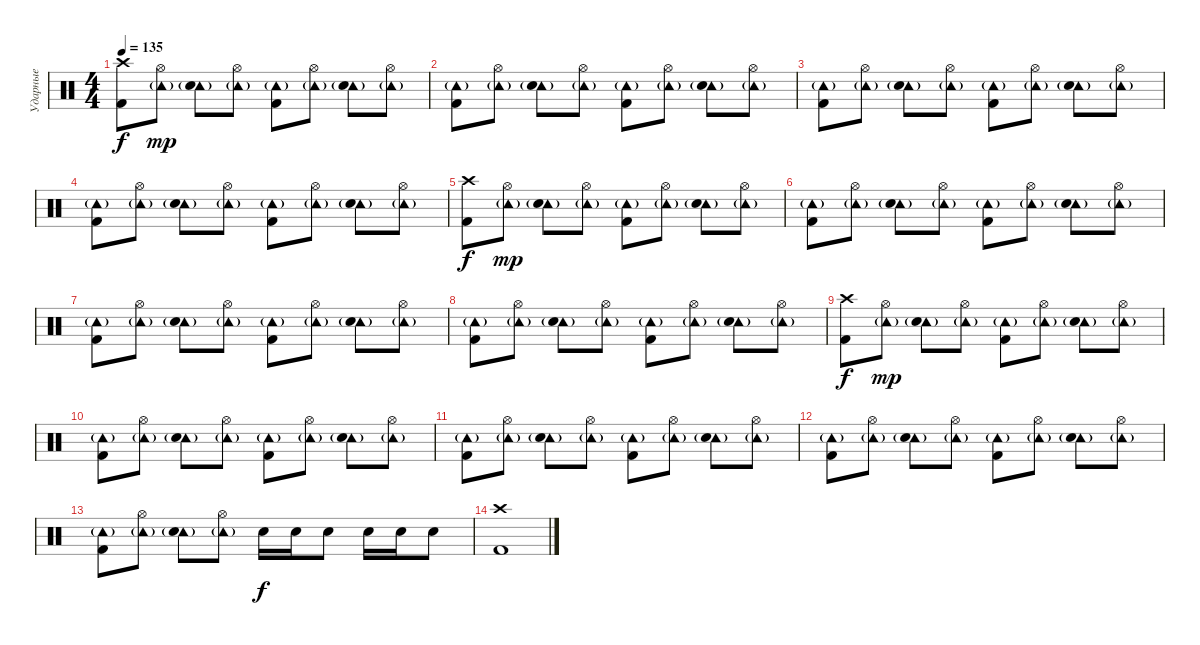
\track ("Ударные" "Ударные") {instrument percussion}
\staff {score}
\articulation defaults
\ts (4 4)
\tempo 135
\clef neutral
\ks c
("Crash high (hit)" "Kick (hit) 2").8{dy f} ("Tambourine (hit)"{g} "Hi-Hat (open)").8{dy mp} ("Tambourine (hit)"{g} "Electric Snare (hit)").8 ("Tambourine (hit)"{g} "Hi-Hat (open)").8 ("Tambourine (hit)"{g} "Kick (hit) 2").8 ("Tambourine (hit)"{g} "Hi-Hat (open)").8 ("Tambourine (hit)"{g} "Electric Snare (hit)").8 ("Tambourine (hit)"{g} "Hi-Hat (open)").8 |
("Tambourine (hit)"{g} "Kick (hit) 2").8 ("Tambourine (hit)"{g} "Hi-Hat (open)").8 ("Tambourine (hit)"{g} "Electric Snare (hit)").8 ("Tambourine (hit)"{g} "Hi-Hat (open)").8 ("Tambourine (hit)"{g} "Kick (hit) 2").8 ("Tambourine (hit)"{g} "Hi-Hat (open)").8 ("Tambourine (hit)"{g} "Electric Snare (hit)").8 ("Tambourine (hit)"{g} "Hi-Hat (open)").8 |
("Tambourine (hit)"{g} "Kick (hit) 2").8 ("Tambourine (hit)"{g} "Hi-Hat (open)").8 ("Tambourine (hit)"{g} "Electric Snare (hit)").8 ("Tambourine (hit)"{g} "Hi-Hat (open)").8 ("Tambourine (hit)"{g} "Kick (hit) 2").8 ("Tambourine (hit)"{g} "Hi-Hat (open)").8 ("Tambourine (hit)"{g} "Electric Snare (hit)").8 ("Tambourine (hit)"{g} "Hi-Hat (open)").8 |
("Tambourine (hit)"{g} "Kick (hit) 2").8 ("Tambourine (hit)"{g} "Hi-Hat (open)").8 ("Tambourine (hit)"{g} "Electric Snare (hit)").8 ("Tambourine (hit)"{g} "Hi-Hat (open)").8 ("Tambourine (hit)"{g} "Kick (hit) 2").8 ("Tambourine (hit)"{g} "Hi-Hat (open)").8 ("Tambourine (hit)"{g} "Electric Snare (hit)").8 ("Tambourine (hit)"{g} "Hi-Hat (open)").8 |
("Crash high (hit)" "Kick (hit) 2").8{dy f} ("Tambourine (hit)"{g} "Hi-Hat (open)").8{dy mp} ("Tambourine (hit)"{g} "Electric Snare (hit)").8 ("Tambourine (hit)"{g} "Hi-Hat (open)").8 ("Tambourine (hit)"{g} "Kick (hit) 2").8 ("Tambourine (hit)"{g} "Hi-Hat (open)").8 ("Tambourine (hit)"{g} "Electric Snare (hit)").8 ("Tambourine (hit)"{g} "Hi-Hat (open)").8 |
("Tambourine (hit)"{g} "Kick (hit) 2").8 ("Tambourine (hit)"{g} "Hi-Hat (open)").8 ("Tambourine (hit)"{g} "Electric Snare (hit)").8 ("Tambourine (hit)"{g} "Hi-Hat (open)").8 ("Tambourine (hit)"{g} "Kick (hit) 2").8 ("Tambourine (hit)"{g} "Hi-Hat (open)").8 ("Tambourine (hit)"{g} "Electric Snare (hit)").8 ("Tambourine (hit)"{g} "Hi-Hat (open)").8 |
("Tambourine (hit)"{g} "Kick (hit) 2").8 ("Tambourine (hit)"{g} "Hi-Hat (open)").8 ("Tambourine (hit)"{g} "Electric Snare (hit)").8 ("Tambourine (hit)"{g} "Hi-Hat (open)").8 ("Tambourine (hit)"{g} "Kick (hit) 2").8 ("Tambourine (hit)"{g} "Hi-Hat (open)").8 ("Tambourine (hit)"{g} "Electric Snare (hit)").8 ("Tambourine (hit)"{g} "Hi-Hat (open)").8 |
("Tambourine (hit)"{g} "Kick (hit) 2").8 ("Tambourine (hit)"{g} "Hi-Hat (open)").8 ("Tambourine (hit)"{g} "Electric Snare (hit)").8 ("Tambourine (hit)"{g} "Hi-Hat (open)").8 ("Tambourine (hit)"{g} "Kick (hit) 2").8 ("Tambourine (hit)"{g} "Hi-Hat (open)").8 ("Tambourine (hit)"{g} "Electric Snare (hit)").8 ("Tambourine (hit)"{g} "Hi-Hat (open)").8 |
("Crash high (hit)" "Kick (hit) 2").8{dy f} ("Tambourine (hit)"{g} "Hi-Hat (open)").8{dy mp} ("Tambourine (hit)"{g} "Electric Snare (hit)").8 ("Tambourine (hit)"{g} "Hi-Hat (open)").8 ("Tambourine (hit)"{g} "Kick (hit) 2").8 ("Tambourine (hit)"{g} "Hi-Hat (open)").8 ("Tambourine (hit)"{g} "Electric Snare (hit)").8 ("Tambourine (hit)"{g} "Hi-Hat (open)").8 |
("Tambourine (hit)"{g} "Kick (hit) 2").8 ("Tambourine (hit)"{g} "Hi-Hat (open)").8 ("Tambourine (hit)"{g} "Electric Snare (hit)").8 ("Tambourine (hit)"{g} "Hi-Hat (open)").8 ("Tambourine (hit)"{g} "Kick (hit) 2").8 ("Tambourine (hit)"{g} "Hi-Hat (open)").8 ("Tambourine (hit)"{g} "Electric Snare (hit)").8 ("Tambourine (hit)"{g} "Hi-Hat (open)").8 |
("Tambourine (hit)"{g} "Kick (hit) 2").8 ("Tambourine (hit)"{g} "Hi-Hat (open)").8 ("Tambourine (hit)"{g} "Electric Snare (hit)").8 ("Tambourine (hit)"{g} "Hi-Hat (open)").8 ("Tambourine (hit)"{g} "Kick (hit) 2").8 ("Tambourine (hit)"{g} "Hi-Hat (open)").8 ("Tambourine (hit)"{g} "Electric Snare (hit)").8 ("Tambourine (hit)"{g} "Hi-Hat (open)").8 |
("Tambourine (hit)"{g} "Kick (hit) 2").8 ("Tambourine (hit)"{g} "Hi-Hat (open)").8 ("Tambourine (hit)"{g} "Electric Snare (hit)").8 ("Tambourine (hit)"{g} "Hi-Hat (open)").8 ("Tambourine (hit)"{g} "Kick (hit) 2").8 ("Tambourine (hit)"{g} "Hi-Hat (open)").8 ("Tambourine (hit)"{g} "Electric Snare (hit)").8 ("Tambourine (hit)"{g} "Hi-Hat (open)").8 |
("Tambourine (hit)"{g} "Kick (hit) 2").8 ("Tambourine (hit)"{g} "Hi-Hat (open)").8 ("Tambourine (hit)"{g} "Electric Snare (hit)").8 ("Tambourine (hit)"{g} "Hi-Hat (open)").8 "Electric Snare (hit)".16{dy f} "Electric Snare (hit)".16 "Electric Snare (hit)".8 "Electric Snare (hit)".16 "Electric Snare (hit)".16 "Electric Snare (hit)".8 |
("Crash high (hit)" "Kick (hit) 2").1
